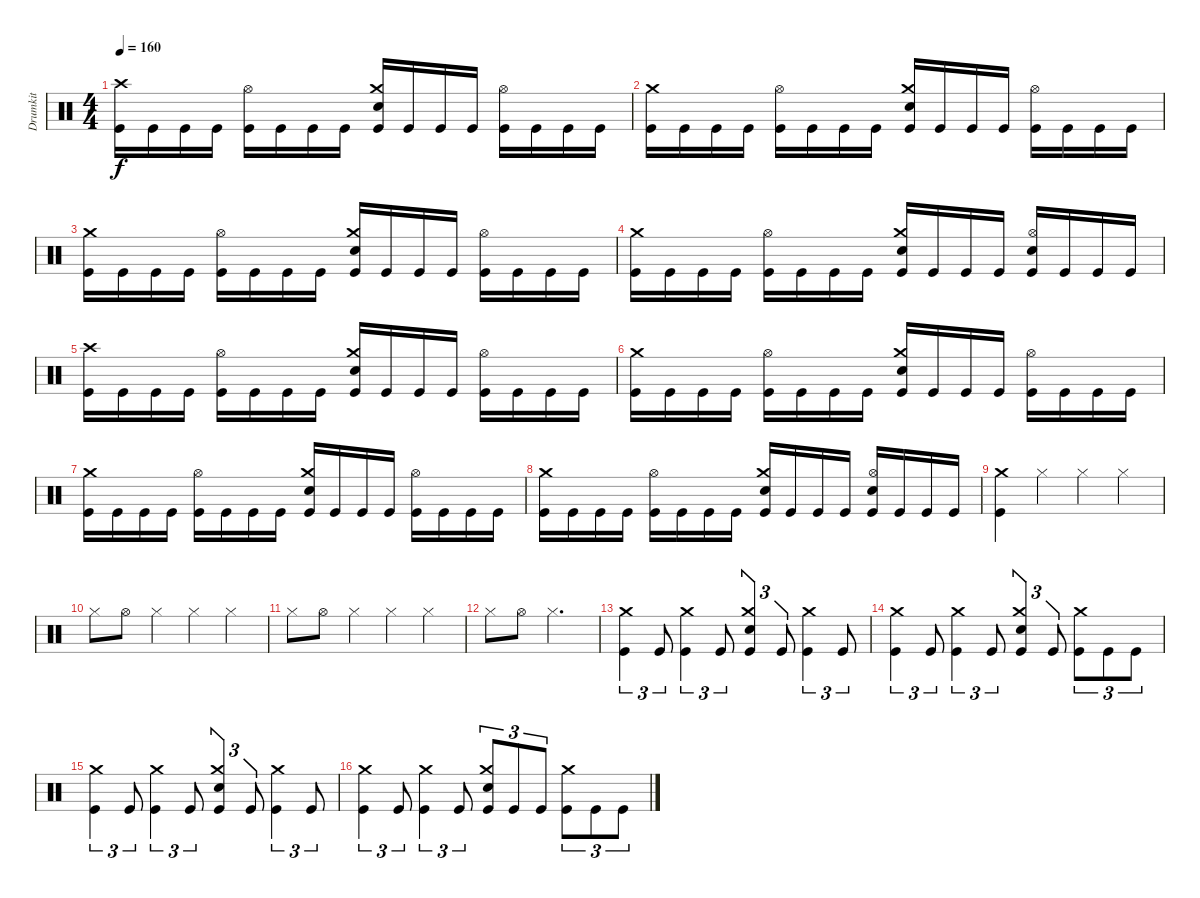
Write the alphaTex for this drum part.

\track ("Drumkit" "Drumkit") {instrument percussion}
\staff {score}
\articulation defaults
\ts (4 4)
\tempo 160
\clef neutral
\ks c
("Crash high (hit)" "Kick (hit)").16{dy f} "Kick (hit)".16 "Kick (hit)".16 "Kick (hit)".16 ("Hi-Hat (open)" "Kick (hit)").16 "Kick (hit)".16 "Kick (hit)".16 "Kick (hit)".16 ("Crash medium (hit)" "Snare (hit) 2" "Kick (hit)").16 "Kick (hit)".16 "Kick (hit)".16 "Kick (hit)".16 ("Hi-Hat (open)" "Kick (hit)").16 "Kick (hit)".16 "Kick (hit)".16 "Kick (hit)".16 |
("Crash medium (hit)" "Kick (hit)").16 "Kick (hit)".16 "Kick (hit)".16 "Kick (hit)".16 ("Hi-Hat (open)" "Kick (hit)").16 "Kick (hit)".16 "Kick (hit)".16 "Kick (hit)".16 ("Crash medium (hit)" "Snare (hit) 2" "Kick (hit)").16 "Kick (hit)".16 "Kick (hit)".16 "Kick (hit)".16 ("Hi-Hat (open)" "Kick (hit)").16 "Kick (hit)".16 "Kick (hit)".16 "Kick (hit)".16 |
("Crash medium (hit)" "Kick (hit)").16 "Kick (hit)".16 "Kick (hit)".16 "Kick (hit)".16 ("Hi-Hat (open)" "Kick (hit)").16 "Kick (hit)".16 "Kick (hit)".16 "Kick (hit)".16 ("Crash medium (hit)" "Snare (hit) 2" "Kick (hit)").16 "Kick (hit)".16 "Kick (hit)".16 "Kick (hit)".16 ("Hi-Hat (open)" "Kick (hit)").16 "Kick (hit)".16 "Kick (hit)".16 "Kick (hit)".16 |
("Crash medium (hit)" "Kick (hit)").16 "Kick (hit)".16 "Kick (hit)".16 "Kick (hit)".16 ("Hi-Hat (open)" "Kick (hit)").16 "Kick (hit)".16 "Kick (hit)".16 "Kick (hit)".16 ("Crash medium (hit)" "Snare (hit) 2" "Kick (hit)").16 "Kick (hit)".16 "Kick (hit)".16 "Kick (hit)".16 ("Hi-Hat (open)" "Snare (hit) 2" "Kick (hit)").16 "Kick (hit)".16 "Kick (hit)".16 "Kick (hit)".16 |
("Crash high (hit)" "Kick (hit)").16 "Kick (hit)".16 "Kick (hit)".16 "Kick (hit)".16 ("Hi-Hat (open)" "Kick (hit)").16 "Kick (hit)".16 "Kick (hit)".16 "Kick (hit)".16 ("Crash medium (hit)" "Snare (hit) 2" "Kick (hit)").16 "Kick (hit)".16 "Kick (hit)".16 "Kick (hit)".16 ("Hi-Hat (open)" "Kick (hit)").16 "Kick (hit)".16 "Kick (hit)".16 "Kick (hit)".16 |
("Crash medium (hit)" "Kick (hit)").16 "Kick (hit)".16 "Kick (hit)".16 "Kick (hit)".16 ("Hi-Hat (open)" "Kick (hit)").16 "Kick (hit)".16 "Kick (hit)".16 "Kick (hit)".16 ("Crash medium (hit)" "Snare (hit) 2" "Kick (hit)").16 "Kick (hit)".16 "Kick (hit)".16 "Kick (hit)".16 ("Hi-Hat (open)" "Kick (hit)").16 "Kick (hit)".16 "Kick (hit)".16 "Kick (hit)".16 |
("Crash medium (hit)" "Kick (hit)").16 "Kick (hit)".16 "Kick (hit)".16 "Kick (hit)".16 ("Hi-Hat (open)" "Kick (hit)").16 "Kick (hit)".16 "Kick (hit)".16 "Kick (hit)".16 ("Crash medium (hit)" "Snare (hit) 2" "Kick (hit)").16 "Kick (hit)".16 "Kick (hit)".16 "Kick (hit)".16 ("Hi-Hat (open)" "Kick (hit)").16 "Kick (hit)".16 "Kick (hit)".16 "Kick (hit)".16 |
("Crash medium (hit)" "Kick (hit)").16 "Kick (hit)".16 "Kick (hit)".16 "Kick (hit)".16 ("Hi-Hat (open)" "Kick (hit)").16 "Kick (hit)".16 "Kick (hit)".16 "Kick (hit)".16 ("Crash medium (hit)" "Snare (hit) 2" "Kick (hit)").16 "Kick (hit)".16 "Kick (hit)".16 "Kick (hit)".16 ("Hi-Hat (open)" "Snare (hit) 2" "Kick (hit)").16 "Kick (hit)".16 "Kick (hit)".16 "Kick (hit)".16 |
("Crash medium (hit)" "Kick (hit)").4 "Hi-Hat (closed)".4 "Hi-Hat (closed)".4 "Hi-Hat (closed)".4 |
"Hi-Hat (closed)".8 "Hi-Hat (open)".8 "Hi-Hat (closed)".4 "Hi-Hat (closed)".4 "Hi-Hat (closed)".4 |
"Hi-Hat (closed)".8 "Hi-Hat (open)".8 "Hi-Hat (closed)".4 "Hi-Hat (closed)".4 "Hi-Hat (closed)".4 |
"Hi-Hat (closed)".8 "Hi-Hat (open)".8 "Hi-Hat (closed)".2{d} |
("Crash medium (hit)" "Kick (hit)").4{tu (3 2)} "Kick (hit)".8{tu (3 2)} ("Crash medium (hit)" "Kick (hit)").4{tu (3 2)} "Kick (hit)".8{tu (3 2)} ("Crash medium (hit)" "Snare (hit) 2" "Kick (hit)").4{tu (3 2)} "Kick (hit)".8{tu (3 2)} ("Crash medium (hit)" "Kick (hit)").4{tu (3 2)} "Kick (hit)".8{tu (3 2)} |
("Crash medium (hit)" "Kick (hit)").4{tu (3 2)} "Kick (hit)".8{tu (3 2)} ("Crash medium (hit)" "Kick (hit)").4{tu (3 2)} "Kick (hit)".8{tu (3 2)} ("Crash medium (hit)" "Snare (hit) 2" "Kick (hit)").4{tu (3 2)} "Kick (hit)".8{tu (3 2)} ("Crash medium (hit)" "Kick (hit)").8{tu (3 2)} "Kick (hit)".8{tu (3 2)} "Kick (hit)".8{tu (3 2)} |
("Crash medium (hit)" "Kick (hit)").4{tu (3 2)} "Kick (hit)".8{tu (3 2)} ("Crash medium (hit)" "Kick (hit)").4{tu (3 2)} "Kick (hit)".8{tu (3 2)} ("Crash medium (hit)" "Snare (hit) 2" "Kick (hit)").4{tu (3 2)} "Kick (hit)".8{tu (3 2)} ("Crash medium (hit)" "Kick (hit)").4{tu (3 2)} "Kick (hit)".8{tu (3 2)} |
("Crash medium (hit)" "Kick (hit)").4{tu (3 2)} "Kick (hit)".8{tu (3 2)} ("Crash medium (hit)" "Kick (hit)").4{tu (3 2)} "Kick (hit)".8{tu (3 2)} ("Crash medium (hit)" "Snare (hit) 2" "Kick (hit)").8{tu (3 2)} "Kick (hit)".8{tu (3 2)} "Kick (hit)".8{tu (3 2)} ("Crash medium (hit)" "Kick (hit)").8{tu (3 2)} "Kick (hit)".8{tu (3 2)} "Kick (hit)".8{tu (3 2)}
